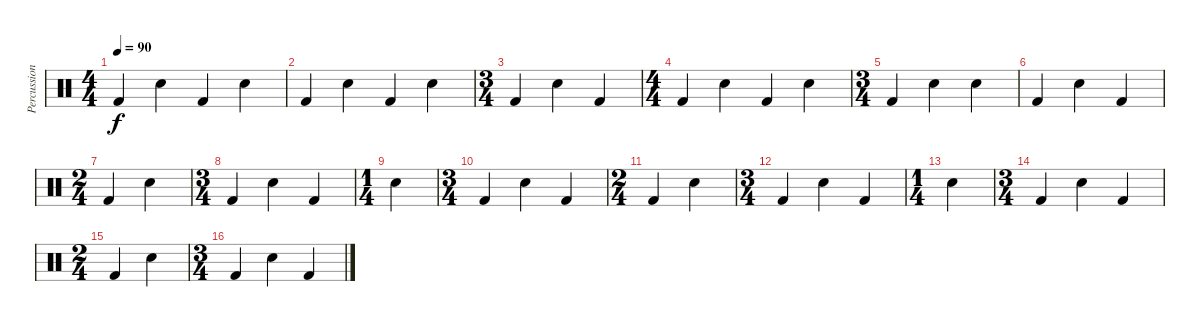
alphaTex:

\track ("Percussion" "Percussion") {instrument percussion}
\staff {score}
\articulation defaults
\ts (4 4)
\tempo 90
\clef neutral
\ks c "Kick (hit) 2".4{dy f} "Snare (hit) 2".4 "Kick (hit) 2".4 "Snare (hit) 2".4
|
"Kick (hit) 2".4 "Snare (hit) 2".4 "Kick (hit) 2".4 "Snare (hit) 2".4 |
\ts (3 4)
"Kick (hit) 2".4 "Snare (hit) 2".4 "Kick (hit) 2".4 |
\ts (4 4)
"Kick (hit) 2".4 "Snare (hit) 2".4 "Kick (hit) 2".4 "Snare (hit) 2".4 |
\ts (3 4)
"Kick (hit) 2".4 "Snare (hit) 2".4 "Snare (hit) 2".4 |
"Kick (hit) 2".4 "Snare (hit) 2".4 "Kick (hit) 2".4 |
\ts (2 4)
"Kick (hit) 2".4 "Snare (hit) 2".4 |
\ts (3 4)
"Kick (hit) 2".4 "Snare (hit) 2".4 "Kick (hit) 2".4 |
\ts (1 4)
"Snare (hit) 2".4 |
\ts (3 4)
"Kick (hit) 2".4 "Snare (hit) 2".4 "Kick (hit) 2".4 |
\ts (2 4)
"Kick (hit) 2".4 "Snare (hit) 2".4 |
\ts (3 4)
"Kick (hit) 2".4 "Snare (hit) 2".4 "Kick (hit) 2".4 |
\ts (1 4)
"Snare (hit) 2".4 |
\ts (3 4)
"Kick (hit) 2".4 "Snare (hit) 2".4 "Kick (hit) 2".4 |
\ts (2 4)
"Kick (hit) 2".4 "Snare (hit) 2".4 |
\ts (3 4)
"Kick (hit) 2".4 "Snare (hit) 2".4 "Kick (hit) 2".4
